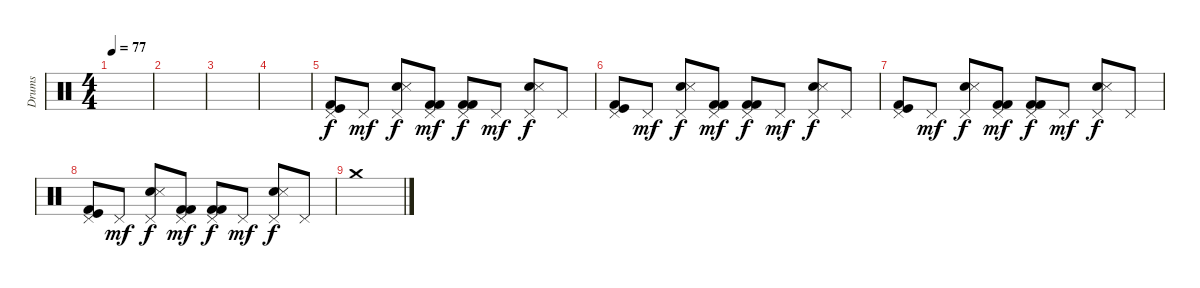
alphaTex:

\track ("Drums" "Drums") {instrument percussion}
\staff {score}
\articulation defaults
\ts (4 4)
\tempo 77
\clef neutral
\ks c
|
|
|
|
("Pedal Hi-Hat (hit)" "Kick (hit) 2" "Kick (hit)").8 "Pedal Hi-Hat (hit)".8{dy mf} ("Pedal Hi-Hat (hit)" "Snare (hit) 2" "Snare (side stick) 3").8{dy f} ("Pedal Hi-Hat (hit)" "Kick (hit) 2" "Kick (hit) 2").8{dy mf} ("Pedal Hi-Hat (hit)" "Kick (hit) 2" "Kick (hit) 2").8{dy f} "Pedal Hi-Hat (hit)".8{dy mf} ("Pedal Hi-Hat (hit)" "Snare (hit) 2" "Snare (side stick) 3").8{dy f} "Pedal Hi-Hat (hit)".8 |
("Pedal Hi-Hat (hit)" "Kick (hit) 2" "Kick (hit)").8 "Pedal Hi-Hat (hit)".8{dy mf} ("Pedal Hi-Hat (hit)" "Snare (hit) 2" "Snare (side stick) 3").8{dy f} ("Pedal Hi-Hat (hit)" "Kick (hit) 2" "Kick (hit) 2").8{dy mf} ("Pedal Hi-Hat (hit)" "Kick (hit) 2" "Kick (hit) 2").8{dy f} "Pedal Hi-Hat (hit)".8{dy mf} ("Pedal Hi-Hat (hit)" "Snare (hit) 2" "Snare (side stick) 3").8{dy f} "Pedal Hi-Hat (hit)".8 |
("Pedal Hi-Hat (hit)" "Kick (hit) 2" "Kick (hit)").8 "Pedal Hi-Hat (hit)".8{dy mf} ("Pedal Hi-Hat (hit)" "Snare (hit) 2" "Snare (side stick) 3").8{dy f} ("Pedal Hi-Hat (hit)" "Kick (hit) 2" "Kick (hit) 2").8{dy mf} ("Pedal Hi-Hat (hit)" "Kick (hit) 2" "Kick (hit) 2").8{dy f} "Pedal Hi-Hat (hit)".8{dy mf} ("Pedal Hi-Hat (hit)" "Snare (hit) 2" "Snare (side stick) 3").8{dy f} "Pedal Hi-Hat (hit)".8 |
("Pedal Hi-Hat (hit)" "Kick (hit) 2" "Kick (hit)").8 "Pedal Hi-Hat (hit)".8{dy mf} ("Pedal Hi-Hat (hit)" "Snare (hit) 2" "Snare (side stick) 3").8{dy f} ("Pedal Hi-Hat (hit)" "Kick (hit) 2" "Kick (hit) 2").8{dy mf} ("Pedal Hi-Hat (hit)" "Kick (hit) 2" "Kick (hit) 2").8{dy f} "Pedal Hi-Hat (hit)".8{dy mf} ("Pedal Hi-Hat (hit)" "Snare (hit) 2" "Snare (side stick) 3").8{dy f} "Pedal Hi-Hat (hit)".8 |
"Crash medium (hit)".1
